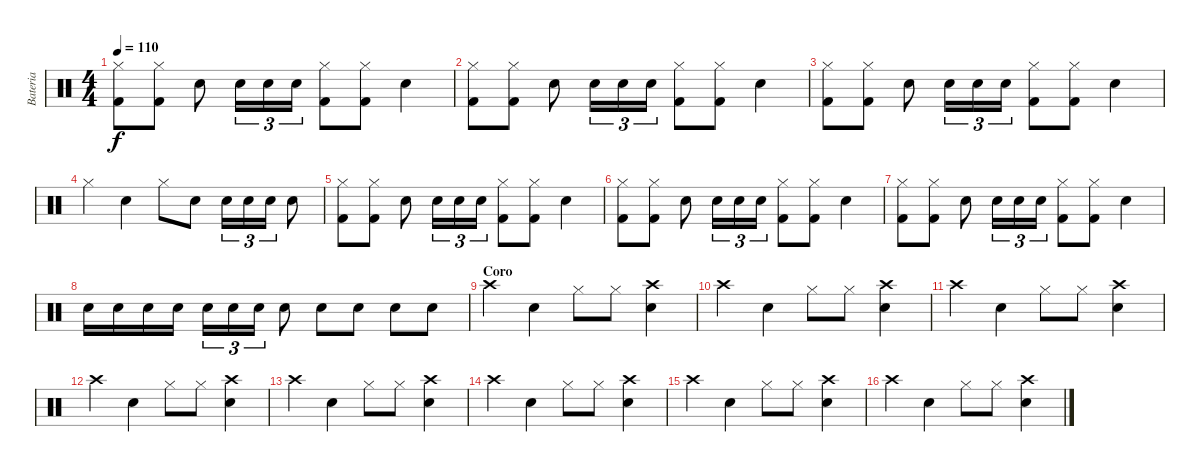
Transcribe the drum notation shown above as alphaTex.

\track ("Bateria" "Bateria") {instrument percussion}
\staff {score}
\articulation defaults
\ts (4 4)
\tempo 110
\clef neutral
\ks c
("Hi-Hat (closed)" "Kick (hit) 2").8{dy f} ("Hi-Hat (closed)" "Kick (hit) 2").8 "Electric Snare (hit)".8 "Snare (hit) 2".16{tu (3 2)} "Snare (hit) 2".16{tu (3 2)} "Snare (hit) 2".16{tu (3 2)} ("Hi-Hat (closed)" "Kick (hit) 2").8 ("Hi-Hat (closed)" "Kick (hit) 2").8 "Electric Snare (hit)".4 |
("Hi-Hat (closed)" "Kick (hit) 2").8 ("Hi-Hat (closed)" "Kick (hit) 2").8 "Electric Snare (hit)".8 "Snare (hit) 2".16{tu (3 2)} "Snare (hit) 2".16{tu (3 2)} "Snare (hit) 2".16{tu (3 2)} ("Hi-Hat (closed)" "Kick (hit) 2").8 ("Hi-Hat (closed)" "Kick (hit) 2").8 "Electric Snare (hit)".4 |
("Hi-Hat (closed)" "Kick (hit) 2").8 ("Hi-Hat (closed)" "Kick (hit) 2").8 "Electric Snare (hit)".8 "Snare (hit) 2".16{tu (3 2)} "Snare (hit) 2".16{tu (3 2)} "Snare (hit) 2".16{tu (3 2)} ("Hi-Hat (closed)" "Kick (hit) 2").8 ("Hi-Hat (closed)" "Kick (hit) 2").8 "Electric Snare (hit)".4 |
"Hi-Hat (closed)".4 "Electric Snare (hit)".4 "Hi-Hat (closed)".8 "Electric Snare (hit)".8 "Snare (hit) 2".16{tu (3 2)} "Snare (hit) 2".16{tu (3 2)} "Snare (hit) 2".16{tu (3 2)} "Electric Snare (hit)".8 |
("Hi-Hat (closed)" "Kick (hit) 2").8 ("Hi-Hat (closed)" "Kick (hit) 2").8 "Electric Snare (hit)".8 "Snare (hit) 2".16{tu (3 2)} "Snare (hit) 2".16{tu (3 2)} "Snare (hit) 2".16{tu (3 2)} ("Hi-Hat (closed)" "Kick (hit) 2").8 ("Hi-Hat (closed)" "Kick (hit) 2").8 "Electric Snare (hit)".4 |
("Hi-Hat (closed)" "Kick (hit) 2").8 ("Hi-Hat (closed)" "Kick (hit) 2").8 "Electric Snare (hit)".8 "Snare (hit) 2".16{tu (3 2)} "Snare (hit) 2".16{tu (3 2)} "Snare (hit) 2".16{tu (3 2)} ("Hi-Hat (closed)" "Kick (hit) 2").8 ("Hi-Hat (closed)" "Kick (hit) 2").8 "Electric Snare (hit)".4 |
("Hi-Hat (closed)" "Kick (hit) 2").8 ("Hi-Hat (closed)" "Kick (hit) 2").8 "Electric Snare (hit)".8 "Snare (hit) 2".16{tu (3 2)} "Snare (hit) 2".16{tu (3 2)} "Snare (hit) 2".16{tu (3 2)} ("Hi-Hat (closed)" "Kick (hit) 2").8 ("Hi-Hat (closed)" "Kick (hit) 2").8 "Electric Snare (hit)".4 |
"Electric Snare (hit)".16 "Electric Snare (hit)".16 "Electric Snare (hit)".16 "Electric Snare (hit)".16 "Snare (hit) 2".16{tu (3 2)} "Snare (hit) 2".16{tu (3 2)} "Snare (hit) 2".16{tu (3 2)} "Electric Snare (hit)".8 "Electric Snare (hit)".8 "Electric Snare (hit)".8 "Electric Snare (hit)".8 "Electric Snare (hit)".8 |
\section ("" "Coro")
"Crash high (hit)".4 "Electric Snare (hit)".4 "Hi-Hat (closed)".8 "Hi-Hat (closed)".8 ("Crash high (hit)" "Electric Snare (hit)").4 |
"Crash high (hit)".4 "Electric Snare (hit)".4 "Hi-Hat (closed)".8 "Hi-Hat (closed)".8 ("Crash high (hit)" "Electric Snare (hit)").4 |
"Crash high (hit)".4 "Electric Snare (hit)".4 "Hi-Hat (closed)".8 "Hi-Hat (closed)".8 ("Crash high (hit)" "Electric Snare (hit)").4 |
"Crash high (hit)".4 "Electric Snare (hit)".4 "Hi-Hat (closed)".8 "Hi-Hat (closed)".8 ("Crash high (hit)" "Electric Snare (hit)").4 |
"Crash high (hit)".4 "Electric Snare (hit)".4 "Hi-Hat (closed)".8 "Hi-Hat (closed)".8 ("Crash high (hit)" "Electric Snare (hit)").4 |
"Crash high (hit)".4 "Electric Snare (hit)".4 "Hi-Hat (closed)".8 "Hi-Hat (closed)".8 ("Crash high (hit)" "Electric Snare (hit)").4 |
"Crash high (hit)".4 "Electric Snare (hit)".4 "Hi-Hat (closed)".8 "Hi-Hat (closed)".8 ("Crash high (hit)" "Electric Snare (hit)").4 |
"Crash high (hit)".4 "Electric Snare (hit)".4 "Hi-Hat (closed)".8 "Hi-Hat (closed)".8 ("Crash high (hit)" "Electric Snare (hit)").4
